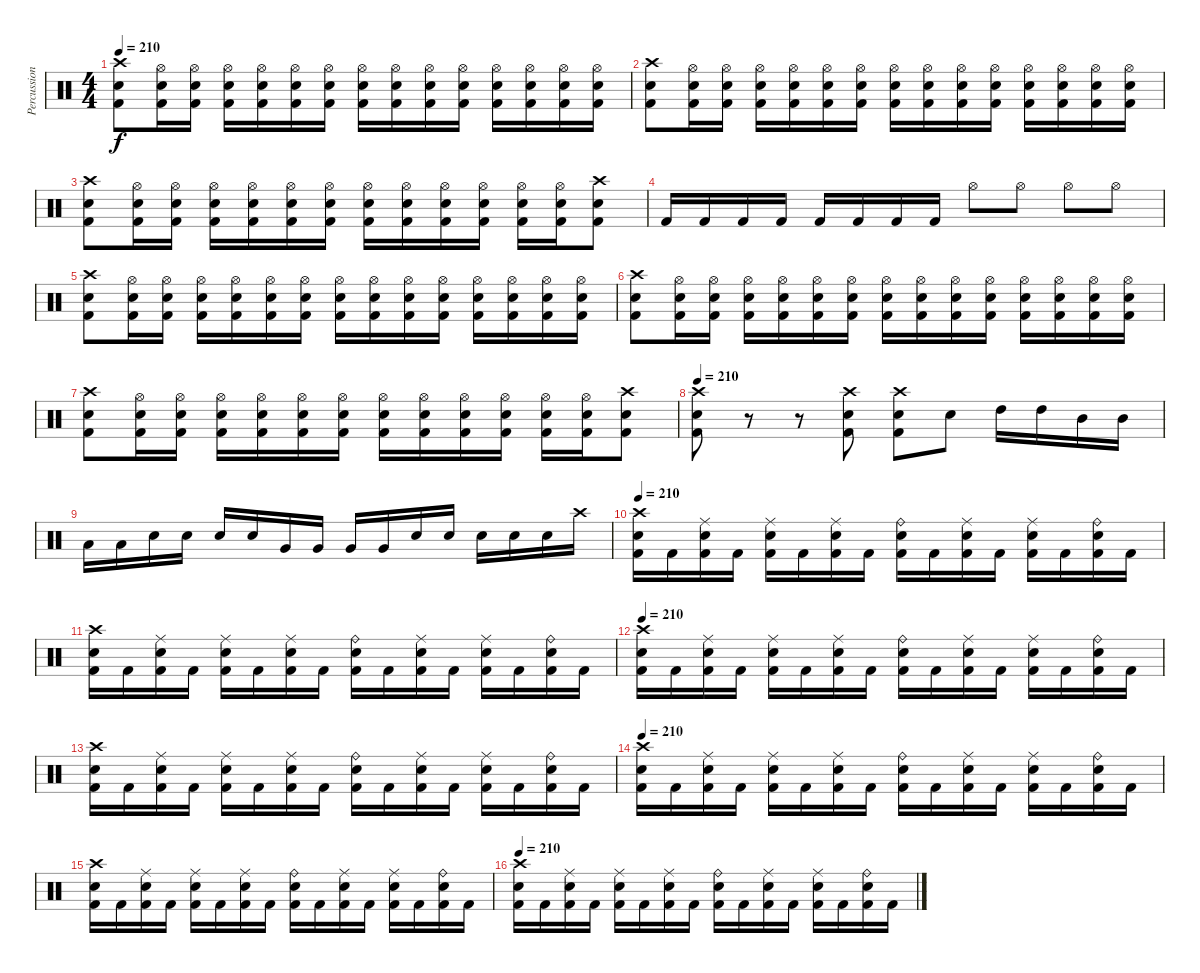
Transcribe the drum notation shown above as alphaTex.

\track ("Percussion" "Percussion") {instrument percussion}
\staff {score}
\articulation defaults
\ts (4 4)
\tempo 210
\clef neutral
\ks c
("Crash high (hit)" "Snare (hit) 2" "Kick (hit) 2").8{dy f} ("Hi-Hat (open)" "Snare (hit) 2" "Kick (hit) 2").16 ("Hi-Hat (open)" "Snare (hit) 2" "Kick (hit) 2").16 ("Hi-Hat (open)" "Snare (hit) 2" "Kick (hit) 2").16 ("Hi-Hat (open)" "Snare (hit) 2" "Kick (hit) 2").16 ("Hi-Hat (open)" "Snare (hit) 2" "Kick (hit) 2").16 ("Hi-Hat (open)" "Snare (hit) 2" "Kick (hit) 2").16 ("Hi-Hat (open)" "Snare (hit) 2" "Kick (hit) 2").16 ("Hi-Hat (open)" "Snare (hit) 2" "Kick (hit) 2").16 ("Hi-Hat (open)" "Snare (hit) 2" "Kick (hit) 2").16 ("Hi-Hat (open)" "Snare (hit) 2" "Kick (hit) 2").16 ("Hi-Hat (open)" "Snare (hit) 2" "Kick (hit) 2").16 ("Hi-Hat (open)" "Snare (hit) 2" "Kick (hit) 2").16 ("Hi-Hat (open)" "Snare (hit) 2" "Kick (hit) 2").16 ("Hi-Hat (open)" "Snare (hit) 2" "Kick (hit) 2").16 |
("Crash high (hit)" "Snare (hit) 2" "Kick (hit) 2").8 ("Hi-Hat (open)" "Snare (hit) 2" "Kick (hit) 2").16 ("Hi-Hat (open)" "Snare (hit) 2" "Kick (hit) 2").16 ("Hi-Hat (open)" "Snare (hit) 2" "Kick (hit) 2").16 ("Hi-Hat (open)" "Snare (hit) 2" "Kick (hit) 2").16 ("Hi-Hat (open)" "Snare (hit) 2" "Kick (hit) 2").16 ("Hi-Hat (open)" "Snare (hit) 2" "Kick (hit) 2").16 ("Hi-Hat (open)" "Snare (hit) 2" "Kick (hit) 2").16 ("Hi-Hat (open)" "Snare (hit) 2" "Kick (hit) 2").16 ("Hi-Hat (open)" "Snare (hit) 2" "Kick (hit) 2").16 ("Hi-Hat (open)" "Snare (hit) 2" "Kick (hit) 2").16 ("Hi-Hat (open)" "Snare (hit) 2" "Kick (hit) 2").16 ("Hi-Hat (open)" "Snare (hit) 2" "Kick (hit) 2").16 ("Hi-Hat (open)" "Snare (hit) 2" "Kick (hit) 2").16 ("Hi-Hat (open)" "Snare (hit) 2" "Kick (hit) 2").16 |
("Crash high (hit)" "Snare (hit) 2" "Kick (hit) 2").8 ("Hi-Hat (open)" "Snare (hit) 2" "Kick (hit) 2").16 ("Hi-Hat (open)" "Snare (hit) 2" "Kick (hit) 2").16 ("Hi-Hat (open)" "Snare (hit) 2" "Kick (hit) 2").16 ("Hi-Hat (open)" "Snare (hit) 2" "Kick (hit) 2").16 ("Hi-Hat (open)" "Snare (hit) 2" "Kick (hit) 2").16 ("Hi-Hat (open)" "Snare (hit) 2" "Kick (hit) 2").16 ("Hi-Hat (open)" "Snare (hit) 2" "Kick (hit) 2").16 ("Hi-Hat (open)" "Snare (hit) 2" "Kick (hit) 2").16 ("Hi-Hat (open)" "Snare (hit) 2" "Kick (hit) 2").16 ("Hi-Hat (open)" "Snare (hit) 2" "Kick (hit) 2").16 ("Hi-Hat (open)" "Snare (hit) 2" "Kick (hit) 2").16 ("Hi-Hat (open)" "Snare (hit) 2" "Kick (hit) 2").16 ("Crash high (hit)" "Snare (hit) 2" "Kick (hit) 2").8 |
"Kick (hit) 2".16 "Kick (hit) 2".16 "Kick (hit) 2".16 "Kick (hit) 2".16 "Kick (hit) 2".16 "Kick (hit) 2".16 "Kick (hit) 2".16 "Kick (hit) 2".16 "Hi-Hat (open)".8 "Hi-Hat (open)".8 "Hi-Hat (open)".8 "Hi-Hat (open)".8 |
("Crash high (hit)" "Snare (hit) 2" "Kick (hit) 2").8 ("Hi-Hat (open)" "Snare (hit) 2" "Kick (hit) 2").16 ("Hi-Hat (open)" "Snare (hit) 2" "Kick (hit) 2").16 ("Hi-Hat (open)" "Snare (hit) 2" "Kick (hit) 2").16 ("Hi-Hat (open)" "Snare (hit) 2" "Kick (hit) 2").16 ("Hi-Hat (open)" "Snare (hit) 2" "Kick (hit) 2").16 ("Hi-Hat (open)" "Snare (hit) 2" "Kick (hit) 2").16 ("Hi-Hat (open)" "Snare (hit) 2" "Kick (hit) 2").16 ("Hi-Hat (open)" "Snare (hit) 2" "Kick (hit) 2").16 ("Hi-Hat (open)" "Snare (hit) 2" "Kick (hit) 2").16 ("Hi-Hat (open)" "Snare (hit) 2" "Kick (hit) 2").16 ("Hi-Hat (open)" "Snare (hit) 2" "Kick (hit) 2").16 ("Hi-Hat (open)" "Snare (hit) 2" "Kick (hit) 2").16 ("Hi-Hat (open)" "Snare (hit) 2" "Kick (hit) 2").16 ("Hi-Hat (open)" "Snare (hit) 2" "Kick (hit) 2").16 |
("Crash high (hit)" "Snare (hit) 2" "Kick (hit) 2").8 ("Hi-Hat (open)" "Snare (hit) 2" "Kick (hit) 2").16 ("Hi-Hat (open)" "Snare (hit) 2" "Kick (hit) 2").16 ("Hi-Hat (open)" "Snare (hit) 2" "Kick (hit) 2").16 ("Hi-Hat (open)" "Snare (hit) 2" "Kick (hit) 2").16 ("Hi-Hat (open)" "Snare (hit) 2" "Kick (hit) 2").16 ("Hi-Hat (open)" "Snare (hit) 2" "Kick (hit) 2").16 ("Hi-Hat (open)" "Snare (hit) 2" "Kick (hit) 2").16 ("Hi-Hat (open)" "Snare (hit) 2" "Kick (hit) 2").16 ("Hi-Hat (open)" "Snare (hit) 2" "Kick (hit) 2").16 ("Hi-Hat (open)" "Snare (hit) 2" "Kick (hit) 2").16 ("Hi-Hat (open)" "Snare (hit) 2" "Kick (hit) 2").16 ("Hi-Hat (open)" "Snare (hit) 2" "Kick (hit) 2").16 ("Hi-Hat (open)" "Snare (hit) 2" "Kick (hit) 2").16 ("Hi-Hat (open)" "Snare (hit) 2" "Kick (hit) 2").16 |
("Crash high (hit)" "Snare (hit) 2" "Kick (hit) 2").8 ("Hi-Hat (open)" "Snare (hit) 2" "Kick (hit) 2").16 ("Hi-Hat (open)" "Snare (hit) 2" "Kick (hit) 2").16 ("Hi-Hat (open)" "Snare (hit) 2" "Kick (hit) 2").16 ("Hi-Hat (open)" "Snare (hit) 2" "Kick (hit) 2").16 ("Hi-Hat (open)" "Snare (hit) 2" "Kick (hit) 2").16 ("Hi-Hat (open)" "Snare (hit) 2" "Kick (hit) 2").16 ("Hi-Hat (open)" "Snare (hit) 2" "Kick (hit) 2").16 ("Hi-Hat (open)" "Snare (hit) 2" "Kick (hit) 2").16 ("Hi-Hat (open)" "Snare (hit) 2" "Kick (hit) 2").16 ("Hi-Hat (open)" "Snare (hit) 2" "Kick (hit) 2").16 ("Hi-Hat (open)" "Snare (hit) 2" "Kick (hit) 2").16 ("Hi-Hat (open)" "Snare (hit) 2" "Kick (hit) 2").16 ("Crash high (hit)" "Snare (hit) 2" "Kick (hit) 2").8 |
\tempo 210
("Crash high (hit)" "Snare (hit) 2" "Kick (hit) 2").8 r.8 r.8 ("Crash high (hit)" "Snare (hit) 2" "Kick (hit) 2").8 ("Crash high (hit)" "Snare (hit) 2" "Kick (hit) 2").8 "Snare (hit) 2".8 "High Tom (hit)".16 "High Tom (hit)".16 "Mid Tom (hit)".16 "Mid Tom (hit)".16 |
"Low Tom (hit)".16 "Low Tom (hit)".16 "Snare (hit) 2".16 "Snare (hit) 2".16 "Snare (hit) 2".16 "Snare (hit) 2".16 "Very Low Tom (hit)".16 "Very Low Tom (hit)".16 "Very Low Tom (hit)".16 "Very Low Tom (hit)".16 "Snare (hit) 2".16 "Snare (hit) 2".16 "Snare (hit) 2".16 "Snare (hit) 2".16 "Snare (hit) 2".16 "Crash high (hit)".16 |
\tempo 210
("Crash high (hit)" "Snare (hit) 2" "Kick (hit) 2").16 "Kick (hit) 2".16 ("Ride (middle)" "Snare (hit) 2" "Kick (hit) 2").16 "Kick (hit) 2".16 ("Ride (middle)" "Snare (hit) 2" "Kick (hit) 2").16 "Kick (hit) 2".16 ("Ride (middle)" "Snare (hit) 2" "Kick (hit) 2").16 "Kick (hit) 2".16 ("Ride (bell)" "Snare (hit) 2" "Kick (hit) 2").16 "Kick (hit) 2".16 ("Ride (middle)" "Snare (hit) 2" "Kick (hit) 2").16 "Kick (hit) 2".16 ("Ride (middle)" "Snare (hit) 2" "Kick (hit) 2").16 "Kick (hit) 2".16 ("Ride (bell)" "Snare (hit) 2" "Kick (hit) 2").16 "Kick (hit) 2".16 |
("Crash high (hit)" "Snare (hit) 2" "Kick (hit) 2").16 "Kick (hit) 2".16 ("Ride (middle)" "Snare (hit) 2" "Kick (hit) 2").16 "Kick (hit) 2".16 ("Ride (middle)" "Snare (hit) 2" "Kick (hit) 2").16 "Kick (hit) 2".16 ("Ride (middle)" "Snare (hit) 2" "Kick (hit) 2").16 "Kick (hit) 2".16 ("Ride (bell)" "Snare (hit) 2" "Kick (hit) 2").16 "Kick (hit) 2".16 ("Ride (middle)" "Snare (hit) 2" "Kick (hit) 2").16 "Kick (hit) 2".16 ("Ride (middle)" "Snare (hit) 2" "Kick (hit) 2").16 "Kick (hit) 2".16 ("Ride (bell)" "Snare (hit) 2" "Kick (hit) 2").16 "Kick (hit) 2".16 |
\tempo 210
("Crash high (hit)" "Snare (hit) 2" "Kick (hit) 2").16 "Kick (hit) 2".16 ("Ride (middle)" "Snare (hit) 2" "Kick (hit) 2").16 "Kick (hit) 2".16 ("Ride (middle)" "Snare (hit) 2" "Kick (hit) 2").16 "Kick (hit) 2".16 ("Ride (middle)" "Snare (hit) 2" "Kick (hit) 2").16 "Kick (hit) 2".16 ("Ride (bell)" "Snare (hit) 2" "Kick (hit) 2").16 "Kick (hit) 2".16 ("Ride (middle)" "Snare (hit) 2" "Kick (hit) 2").16 "Kick (hit) 2".16 ("Ride (middle)" "Snare (hit) 2" "Kick (hit) 2").16 "Kick (hit) 2".16 ("Ride (bell)" "Snare (hit) 2" "Kick (hit) 2").16 "Kick (hit) 2".16 |
("Crash high (hit)" "Snare (hit) 2" "Kick (hit) 2").16 "Kick (hit) 2".16 ("Ride (middle)" "Snare (hit) 2" "Kick (hit) 2").16 "Kick (hit) 2".16 ("Ride (middle)" "Snare (hit) 2" "Kick (hit) 2").16 "Kick (hit) 2".16 ("Ride (middle)" "Snare (hit) 2" "Kick (hit) 2").16 "Kick (hit) 2".16 ("Ride (bell)" "Snare (hit) 2" "Kick (hit) 2").16 "Kick (hit) 2".16 ("Ride (middle)" "Snare (hit) 2" "Kick (hit) 2").16 "Kick (hit) 2".16 ("Ride (middle)" "Snare (hit) 2" "Kick (hit) 2").16 "Kick (hit) 2".16 ("Ride (bell)" "Snare (hit) 2" "Kick (hit) 2").16 "Kick (hit) 2".16 |
\tempo 210
("Crash high (hit)" "Snare (hit) 2" "Kick (hit) 2").16 "Kick (hit) 2".16 ("Ride (middle)" "Snare (hit) 2" "Kick (hit) 2").16 "Kick (hit) 2".16 ("Ride (middle)" "Snare (hit) 2" "Kick (hit) 2").16 "Kick (hit) 2".16 ("Ride (middle)" "Snare (hit) 2" "Kick (hit) 2").16 "Kick (hit) 2".16 ("Ride (bell)" "Snare (hit) 2" "Kick (hit) 2").16 "Kick (hit) 2".16 ("Ride (middle)" "Snare (hit) 2" "Kick (hit) 2").16 "Kick (hit) 2".16 ("Ride (middle)" "Snare (hit) 2" "Kick (hit) 2").16 "Kick (hit) 2".16 ("Ride (bell)" "Snare (hit) 2" "Kick (hit) 2").16 "Kick (hit) 2".16 |
("Crash high (hit)" "Snare (hit) 2" "Kick (hit) 2").16 "Kick (hit) 2".16 ("Ride (middle)" "Snare (hit) 2" "Kick (hit) 2").16 "Kick (hit) 2".16 ("Ride (middle)" "Snare (hit) 2" "Kick (hit) 2").16 "Kick (hit) 2".16 ("Ride (middle)" "Snare (hit) 2" "Kick (hit) 2").16 "Kick (hit) 2".16 ("Ride (bell)" "Snare (hit) 2" "Kick (hit) 2").16 "Kick (hit) 2".16 ("Ride (middle)" "Snare (hit) 2" "Kick (hit) 2").16 "Kick (hit) 2".16 ("Ride (middle)" "Snare (hit) 2" "Kick (hit) 2").16 "Kick (hit) 2".16 ("Ride (bell)" "Snare (hit) 2" "Kick (hit) 2").16 "Kick (hit) 2".16 |
\tempo 210
("Crash high (hit)" "Snare (hit) 2" "Kick (hit) 2").16 "Kick (hit) 2".16 ("Ride (middle)" "Snare (hit) 2" "Kick (hit) 2").16 "Kick (hit) 2".16 ("Ride (middle)" "Snare (hit) 2" "Kick (hit) 2").16 "Kick (hit) 2".16 ("Ride (middle)" "Snare (hit) 2" "Kick (hit) 2").16 "Kick (hit) 2".16 ("Ride (bell)" "Snare (hit) 2" "Kick (hit) 2").16 "Kick (hit) 2".16 ("Ride (middle)" "Snare (hit) 2" "Kick (hit) 2").16 "Kick (hit) 2".16 ("Ride (middle)" "Snare (hit) 2" "Kick (hit) 2").16 "Kick (hit) 2".16 ("Ride (bell)" "Snare (hit) 2" "Kick (hit) 2").16 "Kick (hit) 2".16
